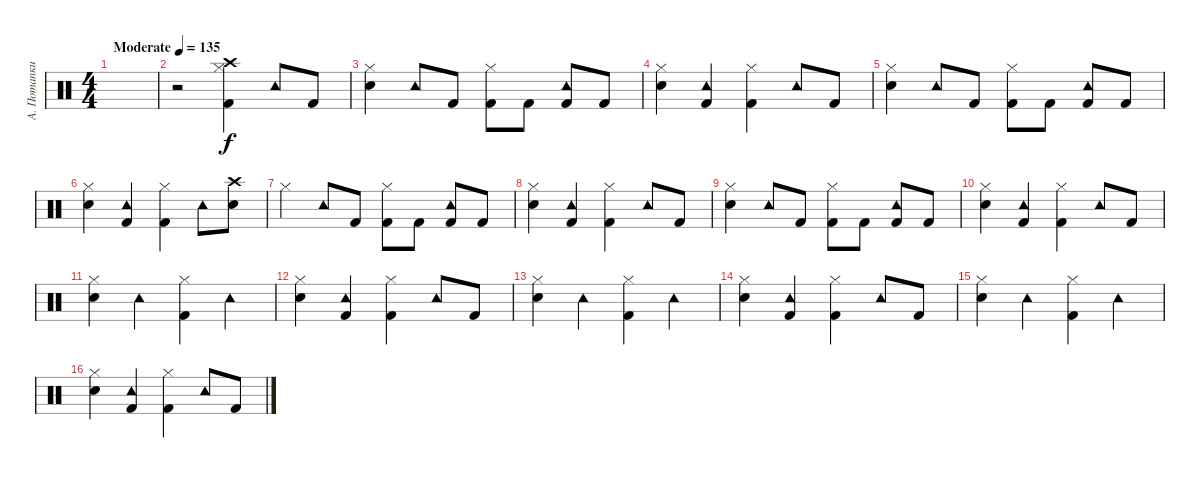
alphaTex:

\track ("А. Потапкин" "А. Потапки") {instrument percussion}
\staff {score}
\articulation defaults
\ts (4 4)
\tempo (135 "Moderate")
\clef neutral
\ks c
|
r.2 ("Crash high (hit)" "Hi-Hat (closed)" "Kick (hit) 2").4 "Tambourine (hit)".8 "Kick (hit) 2".8 |
("Hi-Hat (closed)" "Snare (hit) 2").4 "Tambourine (hit)".8 "Kick (hit) 2".8 ("Hi-Hat (closed)" "Kick (hit) 2").8 "Kick (hit) 2".8 ("Tambourine (hit)" "Kick (hit) 2").8 "Kick (hit) 2".8 |
("Hi-Hat (closed)" "Snare (hit) 2").4 ("Tambourine (hit)" "Kick (hit) 2").4 ("Hi-Hat (closed)" "Kick (hit) 2").4 "Tambourine (hit)".8 "Kick (hit) 2".8 |
("Hi-Hat (closed)" "Snare (hit) 2").4 "Tambourine (hit)".8 "Kick (hit) 2".8 ("Hi-Hat (closed)" "Kick (hit) 2").8 "Kick (hit) 2".8 ("Tambourine (hit)" "Kick (hit) 2").8 "Kick (hit) 2".8 |
("Hi-Hat (closed)" "Snare (hit) 2").4 ("Tambourine (hit)" "Kick (hit) 2").4 ("Hi-Hat (closed)" "Kick (hit) 2").4 "Tambourine (hit)".8 ("Crash high (hit)" "Snare (hit) 2").8 |
"Hi-Hat (closed)".4 "Tambourine (hit)".8 "Kick (hit) 2".8 ("Hi-Hat (closed)" "Kick (hit) 2").8 "Kick (hit) 2".8 ("Tambourine (hit)" "Kick (hit) 2").8 "Kick (hit) 2".8 |
("Hi-Hat (closed)" "Snare (hit) 2").4 ("Tambourine (hit)" "Kick (hit) 2").4 ("Hi-Hat (closed)" "Kick (hit) 2").4 "Tambourine (hit)".8 "Kick (hit) 2".8 |
("Hi-Hat (closed)" "Snare (hit) 2").4 "Tambourine (hit)".8 "Kick (hit) 2".8 ("Hi-Hat (closed)" "Kick (hit) 2").8 "Kick (hit) 2".8 ("Tambourine (hit)" "Kick (hit) 2").8 "Kick (hit) 2".8 |
("Hi-Hat (closed)" "Snare (hit) 2").4 ("Tambourine (hit)" "Kick (hit) 2").4 ("Hi-Hat (closed)" "Kick (hit) 2").4 "Tambourine (hit)".8 "Kick (hit) 2".8 |
("Hi-Hat (closed)" "Snare (hit) 2").4 "Tambourine (hit)".4 ("Hi-Hat (closed)" "Kick (hit) 2").4 "Tambourine (hit)".4 |
("Hi-Hat (closed)" "Snare (hit) 2").4 ("Tambourine (hit)" "Kick (hit) 2").4 ("Hi-Hat (closed)" "Kick (hit) 2").4 "Tambourine (hit)".8 "Kick (hit) 2".8 |
("Hi-Hat (closed)" "Snare (hit) 2").4 "Tambourine (hit)".4 ("Hi-Hat (closed)" "Kick (hit) 2").4 "Tambourine (hit)".4 |
("Hi-Hat (closed)" "Snare (hit) 2").4 ("Tambourine (hit)" "Kick (hit) 2").4 ("Hi-Hat (closed)" "Kick (hit) 2").4 "Tambourine (hit)".8 "Kick (hit) 2".8 |
("Hi-Hat (closed)" "Snare (hit) 2").4 "Tambourine (hit)".4 ("Hi-Hat (closed)" "Kick (hit) 2").4 "Tambourine (hit)".4 |
("Hi-Hat (closed)" "Snare (hit) 2").4 ("Tambourine (hit)" "Kick (hit) 2").4 ("Hi-Hat (closed)" "Kick (hit) 2").4 "Tambourine (hit)".8 "Kick (hit) 2".8
